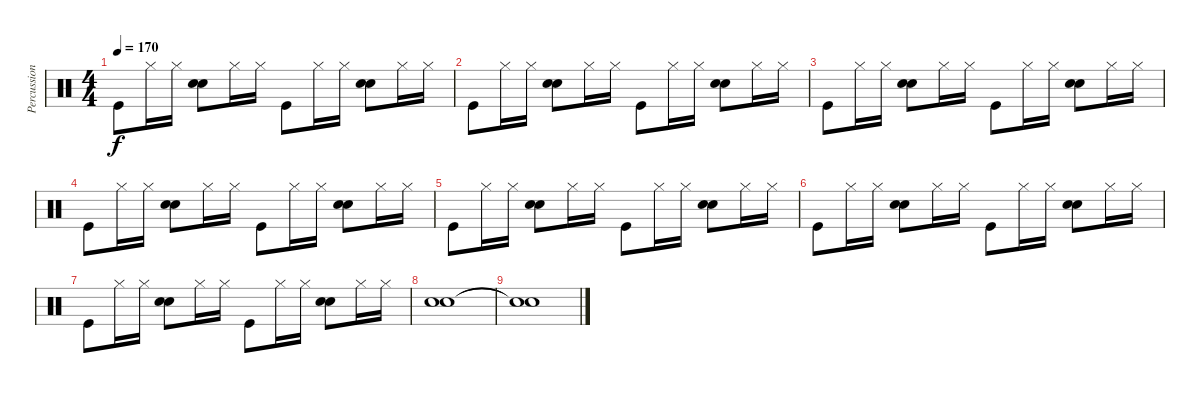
\track ("Percussioni" "Percussion") {instrument percussion}
\staff {score}
\articulation defaults
\ts (4 4)
\tempo 170
\clef neutral
\ks c "Kick (hit)".8{dy f} "Hi-Hat (closed)".16 "Hi-Hat (closed)".16
("Snare (hit) 2" "Electric Snare (hit)").8 "Hi-Hat (closed)".16 "Hi-Hat (closed)".16 "Kick (hit)".8 "Hi-Hat (closed)".16 "Hi-Hat (closed)".16 ("Snare (hit) 2" "Electric Snare (hit)").8 "Hi-Hat (closed)".16 "Hi-Hat (closed)".16 |
"Kick (hit)".8 "Hi-Hat (closed)".16 "Hi-Hat (closed)".16 ("Snare (hit) 2" "Electric Snare (hit)").8 "Hi-Hat (closed)".16 "Hi-Hat (closed)".16 "Kick (hit)".8 "Hi-Hat (closed)".16 "Hi-Hat (closed)".16 ("Snare (hit) 2" "Electric Snare (hit)").8 "Hi-Hat (closed)".16 "Hi-Hat (closed)".16 |
"Kick (hit)".8 "Hi-Hat (closed)".16 "Hi-Hat (closed)".16 ("Snare (hit) 2" "Electric Snare (hit)").8 "Hi-Hat (closed)".16 "Hi-Hat (closed)".16 "Kick (hit)".8 "Hi-Hat (closed)".16 "Hi-Hat (closed)".16 ("Snare (hit) 2" "Electric Snare (hit)").8 "Hi-Hat (closed)".16 "Hi-Hat (closed)".16 |
"Kick (hit)".8 "Hi-Hat (closed)".16 "Hi-Hat (closed)".16 ("Snare (hit) 2" "Electric Snare (hit)").8 "Hi-Hat (closed)".16 "Hi-Hat (closed)".16 "Kick (hit)".8 "Hi-Hat (closed)".16 "Hi-Hat (closed)".16 ("Snare (hit) 2" "Electric Snare (hit)").8 "Hi-Hat (closed)".16 "Hi-Hat (closed)".16 |
"Kick (hit)".8 "Hi-Hat (closed)".16 "Hi-Hat (closed)".16 ("Snare (hit) 2" "Electric Snare (hit)").8 "Hi-Hat (closed)".16 "Hi-Hat (closed)".16 "Kick (hit)".8 "Hi-Hat (closed)".16 "Hi-Hat (closed)".16 ("Snare (hit) 2" "Electric Snare (hit)").8 "Hi-Hat (closed)".16 "Hi-Hat (closed)".16 |
"Kick (hit)".8 "Hi-Hat (closed)".16 "Hi-Hat (closed)".16 ("Snare (hit) 2" "Electric Snare (hit)").8 "Hi-Hat (closed)".16 "Hi-Hat (closed)".16 "Kick (hit)".8 "Hi-Hat (closed)".16 "Hi-Hat (closed)".16 ("Snare (hit) 2" "Electric Snare (hit)").8 "Hi-Hat (closed)".16 "Hi-Hat (closed)".16 |
"Kick (hit)".8 "Hi-Hat (closed)".16 "Hi-Hat (closed)".16 ("Snare (hit) 2" "Electric Snare (hit)").8 "Hi-Hat (closed)".16 "Hi-Hat (closed)".16 "Kick (hit)".8 "Hi-Hat (closed)".16 "Hi-Hat (closed)".16 ("Snare (hit) 2" "Electric Snare (hit)").8 "Hi-Hat (closed)".16 "Hi-Hat (closed)".16 |
("Snare (hit) 2" "Electric Snare (hit)").1 |
("Electric Snare (hit)"{t} "Snare (hit) 2"{t}).1
